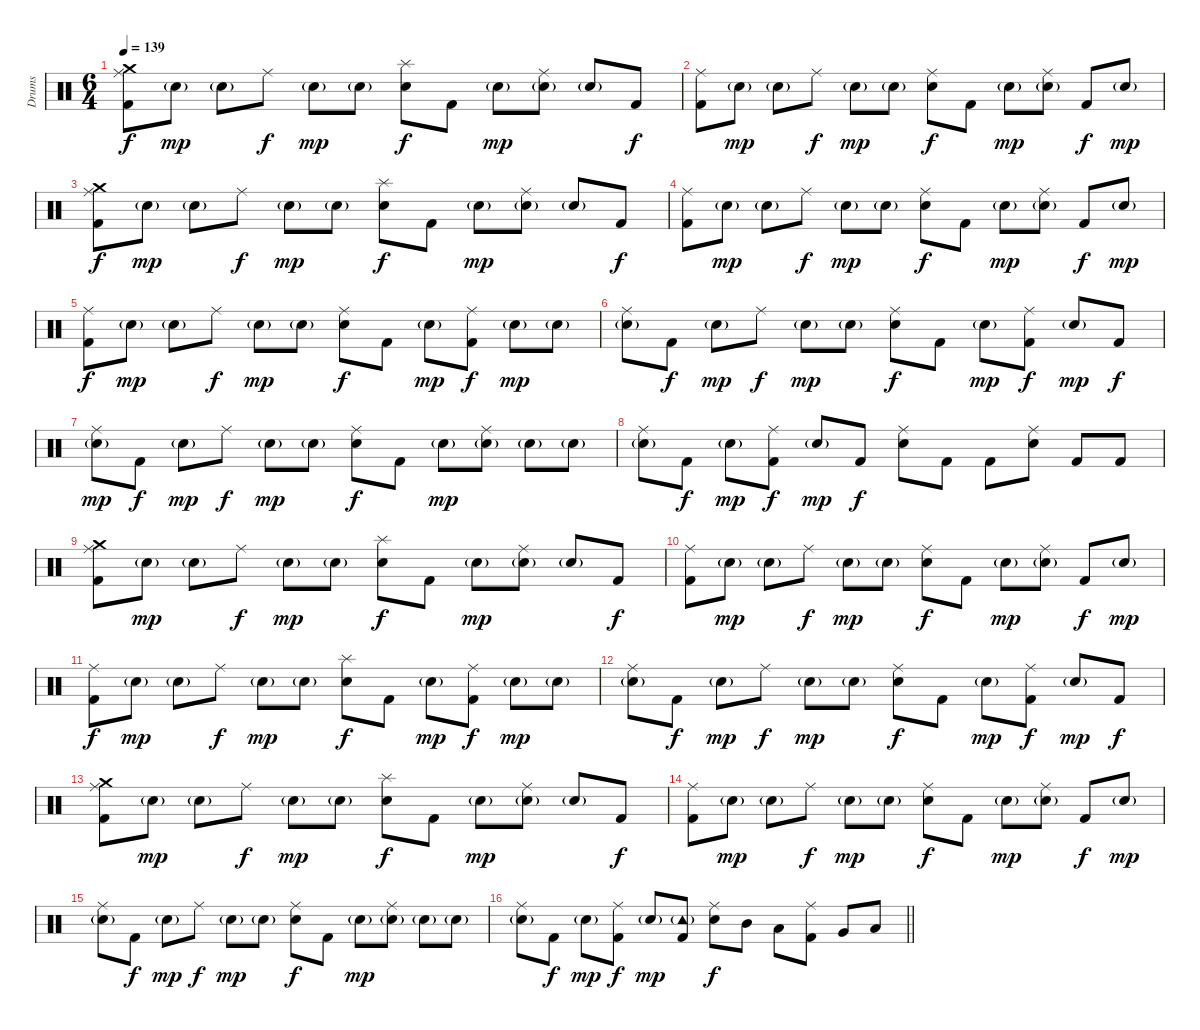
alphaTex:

\track ("Drums" "Drums") {instrument percussion}
\staff {score}
\articulation defaults
\ts (6 4)
\tempo 139
\clef neutral
\ks c
("Crash medium (hit)" "Ride (middle)" "Kick (hit) 2").8{dy f} "Electric Snare (hit)"{g}.8{dy mp} "Electric Snare (hit)"{g}.8 "Ride (middle)".8{dy f} "Electric Snare (hit)"{g}.8{dy mp} "Electric Snare (hit)"{g}.8 ("Splash (hit)" "Electric Snare (hit)").8{dy f} "Kick (hit) 2".8 "Electric Snare (hit)"{g}.8{dy mp} ("Ride (middle)" "Electric Snare (hit)"{g}).8 "Electric Snare (hit)"{g}.8 "Kick (hit) 2".8{dy f} |
("Ride (middle)" "Kick (hit) 2").8 "Electric Snare (hit)"{g}.8{dy mp} "Electric Snare (hit)"{g}.8 "Ride (middle)".8{dy f} "Electric Snare (hit)"{g}.8{dy mp} "Electric Snare (hit)"{g}.8 ("Ride (middle)" "Electric Snare (hit)").8{dy f} "Kick (hit) 2".8 "Electric Snare (hit)"{g}.8{dy mp} ("Ride (middle)" "Electric Snare (hit)"{g}).8 "Kick (hit) 2".8{dy f} "Electric Snare (hit)"{g}.8{dy mp} |
("Crash medium (hit)" "Ride (middle)" "Kick (hit) 2").8{dy f} "Electric Snare (hit)"{g}.8{dy mp} "Electric Snare (hit)"{g}.8 "Ride (middle)".8{dy f} "Electric Snare (hit)"{g}.8{dy mp} "Electric Snare (hit)"{g}.8 ("Splash (hit)" "Electric Snare (hit)").8{dy f} "Kick (hit) 2".8 "Electric Snare (hit)"{g}.8{dy mp} ("Ride (middle)" "Electric Snare (hit)"{g}).8 "Electric Snare (hit)"{g}.8 "Kick (hit) 2".8{dy f} |
("Ride (middle)" "Kick (hit) 2").8 "Electric Snare (hit)"{g}.8{dy mp} "Electric Snare (hit)"{g}.8 "Ride (middle)".8{dy f} "Electric Snare (hit)"{g}.8{dy mp} "Electric Snare (hit)"{g}.8 ("Ride (middle)" "Electric Snare (hit)").8{dy f} "Kick (hit) 2".8 "Electric Snare (hit)"{g}.8{dy mp} ("Ride (middle)" "Electric Snare (hit)"{g}).8 "Kick (hit) 2".8{dy f} "Electric Snare (hit)"{g}.8{dy mp} |
("Ride (middle)" "Kick (hit) 2").8{dy f} "Electric Snare (hit)"{g}.8{dy mp} "Electric Snare (hit)"{g}.8 "Ride (middle)".8{dy f} "Electric Snare (hit)"{g}.8{dy mp} "Electric Snare (hit)"{g}.8 ("Ride (middle)" "Electric Snare (hit)").8{dy f} "Kick (hit) 2".8 "Electric Snare (hit)"{g}.8{dy mp} ("Ride (middle)" "Kick (hit) 2").8{dy f} "Electric Snare (hit)"{g}.8{dy mp} "Electric Snare (hit)"{g}.8 |
("Ride (middle)" "Electric Snare (hit)"{g}).8 "Kick (hit) 2".8{dy f} "Electric Snare (hit)"{g}.8{dy mp} "Ride (middle)".8{dy f} "Electric Snare (hit)"{g}.8{dy mp} "Electric Snare (hit)"{g}.8 ("Ride (middle)" "Electric Snare (hit)").8{dy f} "Kick (hit) 2".8 "Electric Snare (hit)"{g}.8{dy mp} ("Ride (middle)" "Kick (hit) 2").8{dy f} "Electric Snare (hit)"{g}.8{dy mp} "Kick (hit) 2".8{dy f} |
("Ride (middle)" "Electric Snare (hit)"{g}).8{dy mp} "Kick (hit) 2".8{dy f} "Electric Snare (hit)"{g}.8{dy mp} "Ride (middle)".8{dy f} "Electric Snare (hit)"{g}.8{dy mp} "Electric Snare (hit)"{g}.8 ("Ride (middle)" "Electric Snare (hit)").8{dy f} "Kick (hit) 2".8 "Electric Snare (hit)"{g}.8{dy mp} ("Ride (middle)" "Electric Snare (hit)"{g}).8 "Electric Snare (hit)"{g}.8 "Electric Snare (hit)"{g}.8 |
("Ride (middle)" "Electric Snare (hit)"{g}).8 "Kick (hit) 2".8{dy f} "Electric Snare (hit)"{g}.8{dy mp} ("Ride (middle)" "Kick (hit) 2").8{dy f} "Electric Snare (hit)"{g}.8{dy mp} "Kick (hit) 2".8{dy f} ("Ride (middle)" "Electric Snare (hit)").8 "Kick (hit) 2".8 "Kick (hit) 2".8 ("Ride (middle)" "Electric Snare (hit)").8 "Kick (hit) 2".8 "Kick (hit) 2".8 |
("Crash medium (hit)" "Ride (middle)" "Kick (hit) 2").8 "Electric Snare (hit)"{g}.8{dy mp} "Electric Snare (hit)"{g}.8 "Ride (middle)".8{dy f} "Electric Snare (hit)"{g}.8{dy mp} "Electric Snare (hit)"{g}.8 ("Splash (hit)" "Electric Snare (hit)").8{dy f} "Kick (hit) 2".8 "Electric Snare (hit)"{g}.8{dy mp} ("Ride (middle)" "Electric Snare (hit)"{g}).8 "Electric Snare (hit)"{g}.8 "Kick (hit) 2".8{dy f} |
("Ride (middle)" "Kick (hit) 2").8 "Electric Snare (hit)"{g}.8{dy mp} "Electric Snare (hit)"{g}.8 "Ride (middle)".8{dy f} "Electric Snare (hit)"{g}.8{dy mp} "Electric Snare (hit)"{g}.8 ("Ride (middle)" "Electric Snare (hit)").8{dy f} "Kick (hit) 2".8 "Electric Snare (hit)"{g}.8{dy mp} ("Ride (middle)" "Electric Snare (hit)"{g}).8 "Kick (hit) 2".8{dy f} "Electric Snare (hit)"{g}.8{dy mp} |
("Ride (middle)" "Kick (hit) 2").8{dy f} "Electric Snare (hit)"{g}.8{dy mp} "Electric Snare (hit)"{g}.8 "Ride (middle)".8{dy f} "Electric Snare (hit)"{g}.8{dy mp} "Electric Snare (hit)"{g}.8 ("Splash (hit)" "Electric Snare (hit)").8{dy f} "Kick (hit) 2".8 "Electric Snare (hit)"{g}.8{dy mp} ("Ride (middle)" "Kick (hit) 2").8{dy f} "Electric Snare (hit)"{g}.8{dy mp} "Electric Snare (hit)"{g}.8 |
("Ride (middle)" "Electric Snare (hit)"{g}).8 "Kick (hit) 2".8{dy f} "Electric Snare (hit)"{g}.8{dy mp} "Ride (middle)".8{dy f} "Electric Snare (hit)"{g}.8{dy mp} "Electric Snare (hit)"{g}.8 ("Ride (middle)" "Electric Snare (hit)").8{dy f} "Kick (hit) 2".8 "Electric Snare (hit)"{g}.8{dy mp} ("Ride (middle)" "Kick (hit) 2").8{dy f} "Electric Snare (hit)"{g}.8{dy mp} "Kick (hit) 2".8{dy f} |
("Crash medium (hit)" "Ride (middle)" "Kick (hit) 2").8 "Electric Snare (hit)"{g}.8{dy mp} "Electric Snare (hit)"{g}.8 "Ride (middle)".8{dy f} "Electric Snare (hit)"{g}.8{dy mp} "Electric Snare (hit)"{g}.8 ("Splash (hit)" "Electric Snare (hit)").8{dy f} "Kick (hit) 2".8 "Electric Snare (hit)"{g}.8{dy mp} ("Ride (middle)" "Electric Snare (hit)"{g}).8 "Electric Snare (hit)"{g}.8 "Kick (hit) 2".8{dy f} |
("Ride (middle)" "Kick (hit) 2").8 "Electric Snare (hit)"{g}.8{dy mp} "Electric Snare (hit)"{g}.8 "Ride (middle)".8{dy f} "Electric Snare (hit)"{g}.8{dy mp} "Electric Snare (hit)"{g}.8 ("Ride (middle)" "Electric Snare (hit)").8{dy f} "Kick (hit) 2".8 "Electric Snare (hit)"{g}.8{dy mp} ("Ride (middle)" "Electric Snare (hit)"{g}).8 "Kick (hit) 2".8{dy f} "Electric Snare (hit)"{g}.8{dy mp} |
("Ride (middle)" "Electric Snare (hit)"{g}).8 "Kick (hit) 2".8{dy f} "Electric Snare (hit)"{g}.8{dy mp} "Ride (middle)".8{dy f} "Electric Snare (hit)"{g}.8{dy mp} "Electric Snare (hit)"{g}.8 ("Ride (middle)" "Electric Snare (hit)").8{dy f} "Kick (hit) 2".8 "Electric Snare (hit)"{g}.8{dy mp} ("Ride (middle)" "Electric Snare (hit)"{g}).8 "Electric Snare (hit)"{g}.8 "Electric Snare (hit)"{g}.8 |
\barLineRight lightlight
("Ride (middle)" "Electric Snare (hit)"{g}).8 "Kick (hit) 2".8{dy f} "Electric Snare (hit)"{g}.8{dy mp} ("Ride (middle)" "Kick (hit) 2").8{dy f} "Electric Snare (hit)"{g}.8{dy mp} ("Tambourine (hit)"{g} "Kick (hit) 2").8 ("Ride (middle)" "Electric Snare (hit)").8{dy f} "Mid Tom (hit)".8 "Low Tom (hit)".8 ("Ride (middle)" "Kick (hit) 2").8 "Very Low Tom (hit)".8 "Low Floor Tom (hit)".8
